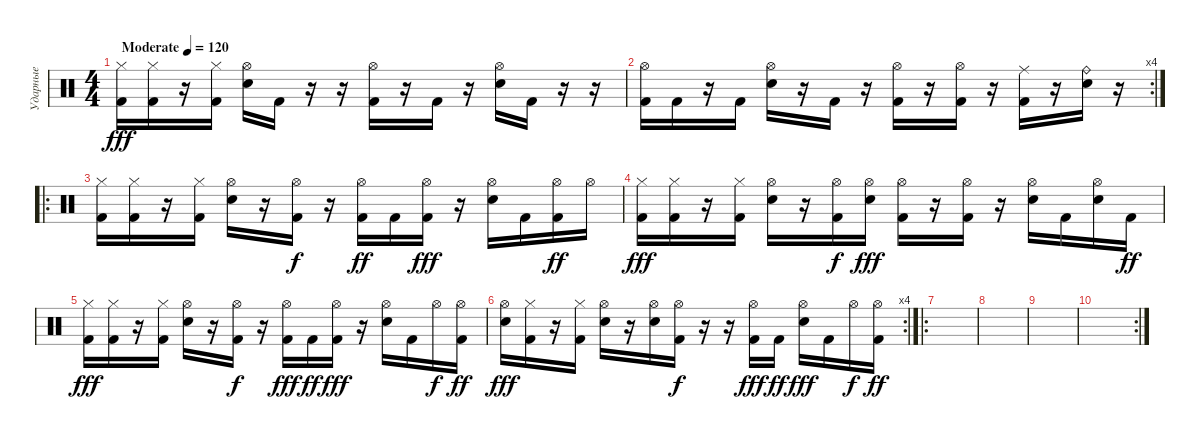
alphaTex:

\track ("Ударные" "Ударные") {instrument percussion}
\staff {score}
\articulation defaults
\ts (4 4)
\tempo (120 "Moderate")
\clef neutral
\ks c
("Hi-Hat (closed)" "Kick (hit) 2").16{dy fff} ("Hi-Hat (closed)" "Kick (hit) 2").16 r.16 ("Hi-Hat (closed)" "Kick (hit) 2").16 ("Hi-Hat (open)" "Electric Snare (hit)").16 "Kick (hit) 2".16 r.16 r.16 ("Hi-Hat (open)" "Kick (hit) 2").16 r.16 "Kick (hit) 2".16 r.16 ("Hi-Hat (open)" "Electric Snare (hit)").16 "Kick (hit) 2".16 r.16 r.16 |
\rc 4
("Hi-Hat (open)" "Kick (hit) 2").16 "Kick (hit) 2".16 r.16 "Kick (hit) 2".16 ("Hi-Hat (open)" "Electric Snare (hit)").16 r.16 "Kick (hit) 2".16 r.16 ("Hi-Hat (open)" "Kick (hit) 2").16 r.16 ("Hi-Hat (open)" "Kick (hit) 2").16 r.16 ("Ride (middle)" "Kick (hit) 2").16 r.16 ("Ride (bell)" "Electric Snare (hit)").16 r.16 |
\ro
("Hi-Hat (closed)" "Kick (hit) 2").16 ("Hi-Hat (closed)" "Kick (hit) 2").16 r.16 ("Hi-Hat (closed)" "Kick (hit) 2").16 ("Hi-Hat (open)" "Electric Snare (hit)").16 r.16 ("Hi-Hat (open)" "Kick (hit) 2").16{dy f} r.16 ("Hi-Hat (open)" "Kick (hit) 2").16{dy ff} "Kick (hit) 2".16 ("Hi-Hat (open)" "Kick (hit) 2").16{dy fff} r.16 ("Hi-Hat (open)" "Electric Snare (hit)").16 "Kick (hit) 2".16 ("Hi-Hat (open)" "Kick (hit) 2").16{dy ff} "Hi-Hat (open)".16 |
("Hi-Hat (closed)" "Kick (hit) 2").16{dy fff} ("Hi-Hat (closed)" "Kick (hit) 2").16 r.16 ("Hi-Hat (closed)" "Kick (hit) 2").16 ("Hi-Hat (open)" "Electric Snare (hit)").16 r.16 ("Hi-Hat (open)" "Kick (hit) 2").16{dy f} ("Hi-Hat (open)" "Electric Snare (hit)").16{dy fff} ("Hi-Hat (open)" "Kick (hit) 2").16 r.16 ("Hi-Hat (open)" "Kick (hit) 2").16 r.16 ("Hi-Hat (open)" "Electric Snare (hit)").16 "Kick (hit) 2".16 ("Hi-Hat (open)" "Electric Snare (hit)").16 "Kick (hit) 2".16{dy ff} |
("Hi-Hat (closed)" "Kick (hit) 2").16{dy fff} ("Hi-Hat (closed)" "Kick (hit) 2").16 r.16 ("Hi-Hat (closed)" "Kick (hit) 2").16 ("Hi-Hat (open)" "Electric Snare (hit)").16 r.16 ("Hi-Hat (open)" "Kick (hit) 2").16{dy f} r.16 ("Hi-Hat (open)" "Kick (hit) 2").16{dy fff} "Kick (hit) 2".16{dy ff} ("Hi-Hat (open)" "Kick (hit) 2").16{dy fff} r.16 ("Hi-Hat (open)" "Electric Snare (hit)").16 "Kick (hit) 2".16 "Hi-Hat (open)".16{dy f} ("Hi-Hat (open)" "Kick (hit) 2").16{dy ff} |
\rc 4
("Hi-Hat (open)" "Electric Snare (hit)").16{dy fff} ("Hi-Hat (closed)" "Kick (hit) 2").16 r.16 ("Hi-Hat (closed)" "Kick (hit) 2").16 ("Hi-Hat (open)" "Electric Snare (hit)").16 r.16 ("Hi-Hat (open)" "Electric Snare (hit)").16 ("Hi-Hat (open)" "Kick (hit) 2").16{dy f} r.16 r.16 ("Hi-Hat (open)" "Kick (hit) 2").16{dy fff} "Kick (hit) 2".16{dy ff} ("Hi-Hat (open)" "Electric Snare (hit)").16{dy fff} "Kick (hit) 2".16 "Hi-Hat (open)".16{dy f} ("Hi-Hat (open)" "Kick (hit) 2").16{dy ff} |
\ro
|
|
|
\rc 2
